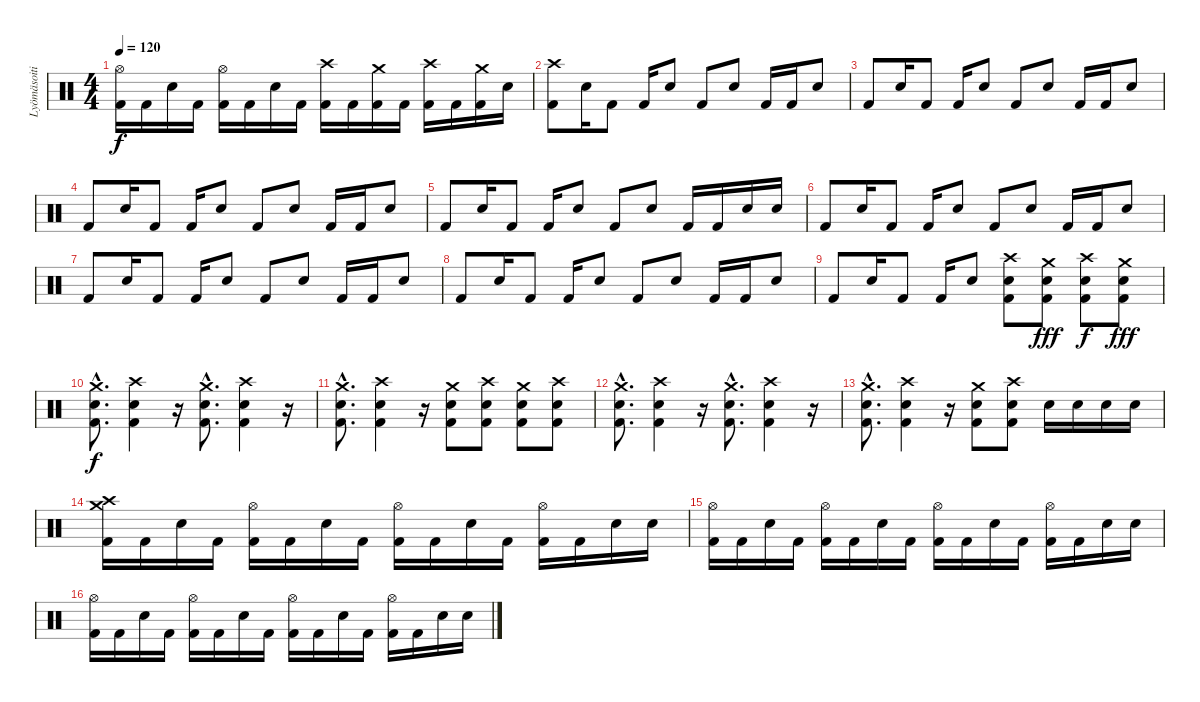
\track ("Lyömäsoitin" "Lyömäsoiti") {instrument percussion}
\staff {score}
\articulation defaults
\ts (4 4)
\tempo 120
\clef neutral
\ks c
("Hi-Hat (open)" "Kick (hit) 2").16{dy f} "Kick (hit) 2".16 "Electric Snare (hit)".16 "Kick (hit) 2".16 ("Hi-Hat (open)" "Kick (hit) 2").16 "Kick (hit) 2".16 "Electric Snare (hit)".16 "Kick (hit) 2".16 ("Crash high (hit)" "Kick (hit) 2").16 "Kick (hit) 2".16 ("Crash medium (hit)" "Kick (hit) 2").16 "Kick (hit) 2".16 ("Crash high (hit)" "Kick (hit) 2").16 "Kick (hit) 2".16 ("Crash medium (hit)" "Kick (hit) 2").16 "Electric Snare (hit)".16 |
("Crash high (hit)" "Kick (hit) 2").8 "Electric Snare (hit)".16 "Kick (hit) 2".8 "Kick (hit) 2".16 "Electric Snare (hit)".8 "Kick (hit) 2".8 "Electric Snare (hit)".8 "Kick (hit) 2".16 "Kick (hit) 2".16 "Electric Snare (hit)".8 |
"Kick (hit) 2".8 "Electric Snare (hit)".16 "Kick (hit) 2".8 "Kick (hit) 2".16 "Electric Snare (hit)".8 "Kick (hit) 2".8 "Electric Snare (hit)".8 "Kick (hit) 2".16 "Kick (hit) 2".16 "Electric Snare (hit)".8 |
"Kick (hit) 2".8 "Electric Snare (hit)".16 "Kick (hit) 2".8 "Kick (hit) 2".16 "Electric Snare (hit)".8 "Kick (hit) 2".8 "Electric Snare (hit)".8 "Kick (hit) 2".16 "Kick (hit) 2".16 "Electric Snare (hit)".8 |
"Kick (hit) 2".8 "Electric Snare (hit)".16 "Kick (hit) 2".8 "Kick (hit) 2".16 "Electric Snare (hit)".8 "Kick (hit) 2".8 "Electric Snare (hit)".8 "Kick (hit) 2".16 "Kick (hit) 2".16 "Electric Snare (hit)".16 "Electric Snare (hit)".16 |
"Kick (hit) 2".8 "Electric Snare (hit)".16 "Kick (hit) 2".8 "Kick (hit) 2".16 "Electric Snare (hit)".8 "Kick (hit) 2".8 "Electric Snare (hit)".8 "Kick (hit) 2".16 "Kick (hit) 2".16 "Electric Snare (hit)".8 |
"Kick (hit) 2".8 "Electric Snare (hit)".16 "Kick (hit) 2".8 "Kick (hit) 2".16 "Electric Snare (hit)".8 "Kick (hit) 2".8 "Electric Snare (hit)".8 "Kick (hit) 2".16 "Kick (hit) 2".16 "Electric Snare (hit)".8 |
"Kick (hit) 2".8 "Electric Snare (hit)".16 "Kick (hit) 2".8 "Kick (hit) 2".16 "Electric Snare (hit)".8 "Kick (hit) 2".8 "Electric Snare (hit)".8 "Kick (hit) 2".16 "Kick (hit) 2".16 "Electric Snare (hit)".8 |
"Kick (hit) 2".8 "Electric Snare (hit)".16 "Kick (hit) 2".8 "Kick (hit) 2".16 "Electric Snare (hit)".8 ("Crash high (hit)" "Electric Snare (hit)" "Kick (hit) 2").8 ("Crash medium (hit)" "Electric Snare (hit)" "Kick (hit) 2").8{dy fff} ("Crash high (hit)" "Electric Snare (hit)" "Kick (hit) 2").8{dy f} ("Crash medium (hit)" "Electric Snare (hit)" "Kick (hit) 2").8{dy fff} |
("Crash medium (hit)"{hac} "Electric Snare (hit)"{hac} "Kick (hit) 2"{hac}).8{d dy f} ("Crash high (hit)" "Electric Snare (hit)" "Kick (hit) 2").4 r.16 ("Crash medium (hit)"{hac} "Electric Snare (hit)"{hac} "Kick (hit) 2"{hac}).8{d} ("Crash high (hit)" "Electric Snare (hit)" "Kick (hit) 2").4 r.16 |
("Crash medium (hit)"{hac} "Electric Snare (hit)"{hac} "Kick (hit) 2"{hac}).8{d} ("Crash high (hit)" "Electric Snare (hit)" "Kick (hit) 2").4 r.16 ("Crash medium (hit)" "Electric Snare (hit)" "Kick (hit) 2").8 ("Crash high (hit)" "Electric Snare (hit)" "Kick (hit) 2").8 ("Crash medium (hit)" "Electric Snare (hit)" "Kick (hit) 2").8 ("Crash high (hit)" "Electric Snare (hit)" "Kick (hit) 2").8 |
("Crash medium (hit)"{hac} "Electric Snare (hit)"{hac} "Kick (hit) 2"{hac}).8{d} ("Crash high (hit)" "Electric Snare (hit)" "Kick (hit) 2").4 r.16 ("Crash medium (hit)"{hac} "Electric Snare (hit)"{hac} "Kick (hit) 2"{hac}).8{d} ("Crash high (hit)" "Electric Snare (hit)" "Kick (hit) 2").4 r.16 |
("Crash medium (hit)"{hac} "Electric Snare (hit)"{hac} "Kick (hit) 2"{hac}).8{d} ("Crash high (hit)" "Electric Snare (hit)" "Kick (hit) 2").4 r.16 ("Crash medium (hit)" "Electric Snare (hit)" "Kick (hit) 2").8 ("Crash high (hit)" "Electric Snare (hit)" "Kick (hit) 2").8 "Electric Snare (hit)".16 "Electric Snare (hit)".16 "Electric Snare (hit)".16 "Electric Snare (hit)".16 |
("Crash medium (hit)" "Crash high (hit)" "Kick (hit) 2").16 "Kick (hit) 2".16 "Electric Snare (hit)".16 "Kick (hit) 2".16 ("Hi-Hat (open)" "Kick (hit) 2").16 "Kick (hit) 2".16 "Electric Snare (hit)".16 "Kick (hit) 2".16 ("Hi-Hat (open)" "Kick (hit) 2").16 "Kick (hit) 2".16 "Electric Snare (hit)".16 "Kick (hit) 2".16 ("Hi-Hat (open)" "Kick (hit) 2").16 "Kick (hit) 2".16 "Electric Snare (hit)".16 "Electric Snare (hit)".16 |
("Hi-Hat (open)" "Kick (hit) 2").16 "Kick (hit) 2".16 "Electric Snare (hit)".16 "Kick (hit) 2".16 ("Hi-Hat (open)" "Kick (hit) 2").16 "Kick (hit) 2".16 "Electric Snare (hit)".16 "Kick (hit) 2".16 ("Hi-Hat (open)" "Kick (hit) 2").16 "Kick (hit) 2".16 "Electric Snare (hit)".16 "Kick (hit) 2".16 ("Hi-Hat (open)" "Kick (hit) 2").16 "Kick (hit) 2".16 "Electric Snare (hit)".16 "Electric Snare (hit)".16 |
("Hi-Hat (open)" "Kick (hit) 2").16 "Kick (hit) 2".16 "Electric Snare (hit)".16 "Kick (hit) 2".16 ("Hi-Hat (open)" "Kick (hit) 2").16 "Kick (hit) 2".16 "Electric Snare (hit)".16 "Kick (hit) 2".16 ("Hi-Hat (open)" "Kick (hit) 2").16 "Kick (hit) 2".16 "Electric Snare (hit)".16 "Kick (hit) 2".16 ("Hi-Hat (open)" "Kick (hit) 2").16 "Kick (hit) 2".16 "Electric Snare (hit)".16 "Electric Snare (hit)".16
